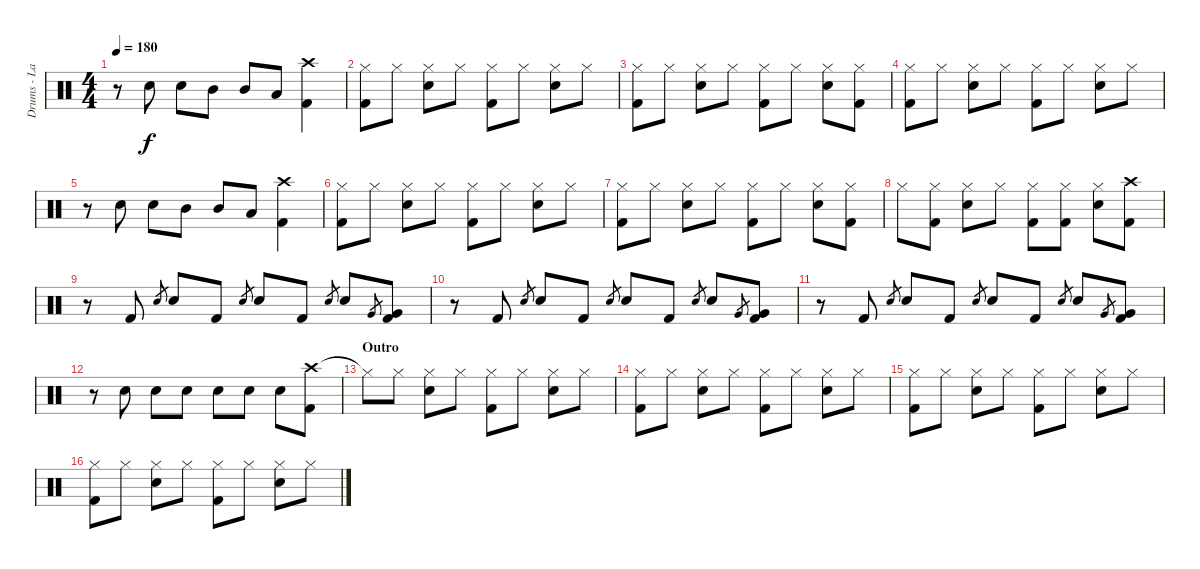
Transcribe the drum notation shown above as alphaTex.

\track ("Drums - Lars" "Drums - La") {instrument percussion}
\staff {score}
\articulation defaults
\ts (4 4)
\tempo 180
\clef neutral
\ks c
r.8{dy f} "Snare (hit) 2".8 "Snare (hit) 2".8 "Mid Tom (hit)".8 "Mid Tom (hit)".8 "Low Tom (hit)".8 ("Crash high (hit)" "Kick (hit) 2").4 |
("Hi-Hat (closed)" "Kick (hit) 2").8 "Hi-Hat (closed)".8 ("Hi-Hat (closed)" "Snare (hit) 2").8 "Hi-Hat (closed)".8 ("Hi-Hat (closed)" "Kick (hit) 2").8 "Hi-Hat (closed)".8 ("Hi-Hat (closed)" "Snare (hit) 2").8 "Hi-Hat (closed)".8 |
("Hi-Hat (closed)" "Kick (hit) 2").8 "Hi-Hat (closed)".8 ("Hi-Hat (closed)" "Snare (hit) 2").8 "Hi-Hat (closed)".8 ("Hi-Hat (closed)" "Kick (hit) 2").8 "Hi-Hat (closed)".8 ("Hi-Hat (closed)" "Snare (hit) 2").8 ("Hi-Hat (closed)" "Kick (hit) 2").8 |
("Hi-Hat (closed)" "Kick (hit) 2").8 "Hi-Hat (closed)".8 ("Hi-Hat (closed)" "Snare (hit) 2").8 "Hi-Hat (closed)".8 ("Hi-Hat (closed)" "Kick (hit) 2").8 "Hi-Hat (closed)".8 ("Hi-Hat (closed)" "Snare (hit) 2").8 "Hi-Hat (closed)".8 |
r.8 "Snare (hit) 2".8 "Snare (hit) 2".8 "Mid Tom (hit)".8 "Mid Tom (hit)".8 "Low Tom (hit)".8 ("Crash high (hit)" "Kick (hit) 2").4 |
("Hi-Hat (closed)" "Kick (hit) 2").8 "Hi-Hat (closed)".8 ("Hi-Hat (closed)" "Snare (hit) 2").8 "Hi-Hat (closed)".8 ("Hi-Hat (closed)" "Kick (hit) 2").8 "Hi-Hat (closed)".8 ("Hi-Hat (closed)" "Snare (hit) 2").8 "Hi-Hat (closed)".8 |
("Hi-Hat (closed)" "Kick (hit) 2").8 "Hi-Hat (closed)".8 ("Hi-Hat (closed)" "Snare (hit) 2").8 "Hi-Hat (closed)".8 ("Hi-Hat (closed)" "Kick (hit) 2").8 "Hi-Hat (closed)".8 ("Hi-Hat (closed)" "Snare (hit) 2").8 ("Hi-Hat (closed)" "Kick (hit) 2").8 |
"Hi-Hat (closed)".8 ("Hi-Hat (closed)" "Kick (hit) 2").8 ("Hi-Hat (closed)" "Snare (hit) 2").8 "Hi-Hat (closed)".8 ("Hi-Hat (closed)" "Kick (hit) 2").8 ("Hi-Hat (closed)" "Kick (hit) 2").8 ("Hi-Hat (closed)" "Snare (hit) 2").8 ("Crash high (hit)" "Kick (hit) 2").8 |
r.8 "Kick (hit) 2".8 "Snare (hit) 2".8{gr} "Snare (hit) 2".8 "Kick (hit) 2".8 "Snare (hit) 2".8{gr} "Snare (hit) 2".8 "Kick (hit) 2".8 "Snare (hit) 2".8{gr} "Snare (hit) 2".8 "Very Low Tom (hit)".8{gr} ("Very Low Tom (hit)" "Kick (hit) 2").8 |
r.8 "Kick (hit) 2".8 "Snare (hit) 2".8{gr} "Snare (hit) 2".8 "Kick (hit) 2".8 "Snare (hit) 2".8{gr} "Snare (hit) 2".8 "Kick (hit) 2".8 "Snare (hit) 2".8{gr} "Snare (hit) 2".8 "Very Low Tom (hit)".8{gr} ("Very Low Tom (hit)" "Kick (hit) 2").8 |
r.8 "Kick (hit) 2".8 "Snare (hit) 2".8{gr} "Snare (hit) 2".8 "Kick (hit) 2".8 "Snare (hit) 2".8{gr} "Snare (hit) 2".8 "Kick (hit) 2".8 "Snare (hit) 2".8{gr} "Snare (hit) 2".8 "Very Low Tom (hit)".8{gr} ("Very Low Tom (hit)" "Kick (hit) 2").8 |
r.8 "Snare (hit) 2".8 "Snare (hit) 2".8 "Snare (hit) 2".8 "Snare (hit) 2".8 "Snare (hit) 2".8 "Snare (hit) 2".8 ("Crash high (hit)" "Kick (hit) 2").8 |
\section ("" "Outro")
"Hi-Hat (closed)"{t}.8 "Hi-Hat (closed)".8 ("Hi-Hat (closed)" "Snare (hit) 2").8 "Hi-Hat (closed)".8 ("Hi-Hat (closed)" "Kick (hit) 2").8 "Hi-Hat (closed)".8 ("Hi-Hat (closed)" "Snare (hit) 2").8 "Hi-Hat (closed)".8 |
("Hi-Hat (closed)" "Kick (hit) 2").8 "Hi-Hat (closed)".8 ("Hi-Hat (closed)" "Snare (hit) 2").8 "Hi-Hat (closed)".8 ("Hi-Hat (closed)" "Kick (hit) 2").8 "Hi-Hat (closed)".8 ("Hi-Hat (closed)" "Snare (hit) 2").8 "Hi-Hat (closed)".8 |
("Hi-Hat (closed)" "Kick (hit) 2").8 "Hi-Hat (closed)".8 ("Hi-Hat (closed)" "Snare (hit) 2").8 "Hi-Hat (closed)".8 ("Hi-Hat (closed)" "Kick (hit) 2").8 "Hi-Hat (closed)".8 ("Hi-Hat (closed)" "Snare (hit) 2").8 "Hi-Hat (closed)".8 |
("Hi-Hat (closed)" "Kick (hit) 2").8 "Hi-Hat (closed)".8 ("Hi-Hat (closed)" "Snare (hit) 2").8 "Hi-Hat (closed)".8 ("Hi-Hat (closed)" "Kick (hit) 2").8 "Hi-Hat (closed)".8 ("Hi-Hat (closed)" "Snare (hit) 2").8 "Hi-Hat (closed)".8
